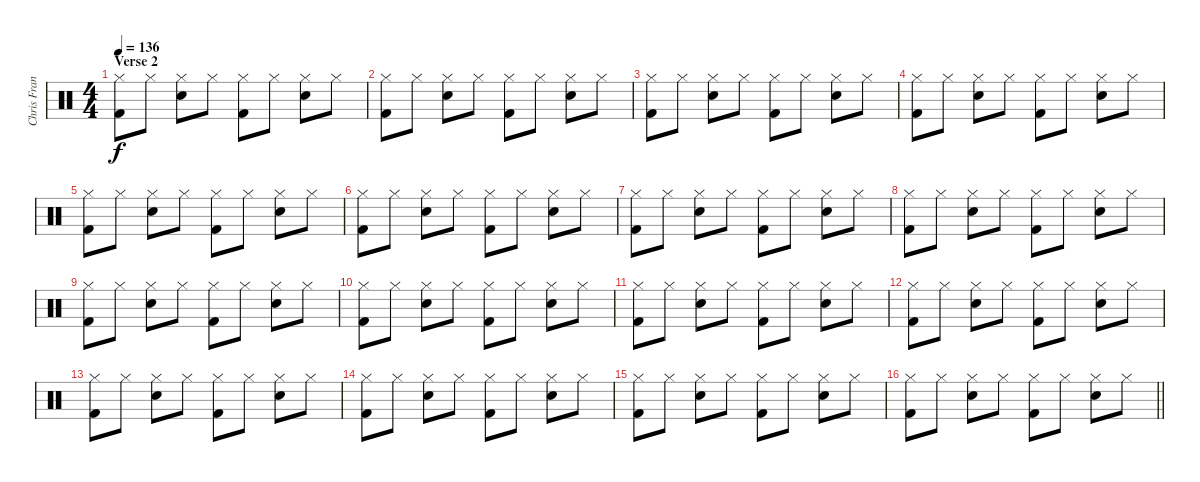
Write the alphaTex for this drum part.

\track ("Chris Frantz" "Chris Fran") {instrument percussion}
\staff {score}
\articulation defaults
\ts (4 4)
\section ("" "Verse 2")
\tempo 136
\clef neutral
\ks c
("Hi-Hat (closed)" "Kick (hit) 2").8{dy f} "Hi-Hat (closed)".8 ("Hi-Hat (closed)" "Electric Snare (hit)").8 "Hi-Hat (closed)".8 ("Hi-Hat (closed)" "Kick (hit) 2").8 "Hi-Hat (closed)".8 ("Hi-Hat (closed)" "Electric Snare (hit)").8 "Hi-Hat (closed)".8 |
("Hi-Hat (closed)" "Kick (hit) 2").8 "Hi-Hat (closed)".8 ("Hi-Hat (closed)" "Electric Snare (hit)").8 "Hi-Hat (closed)".8 ("Hi-Hat (closed)" "Kick (hit) 2").8 "Hi-Hat (closed)".8 ("Hi-Hat (closed)" "Electric Snare (hit)").8 "Hi-Hat (closed)".8 |
("Hi-Hat (closed)" "Kick (hit) 2").8 "Hi-Hat (closed)".8 ("Hi-Hat (closed)" "Electric Snare (hit)").8 "Hi-Hat (closed)".8 ("Hi-Hat (closed)" "Kick (hit) 2").8 "Hi-Hat (closed)".8 ("Hi-Hat (closed)" "Electric Snare (hit)").8 "Hi-Hat (closed)".8 |
("Hi-Hat (closed)" "Kick (hit) 2").8 "Hi-Hat (closed)".8 ("Hi-Hat (closed)" "Electric Snare (hit)").8 "Hi-Hat (closed)".8 ("Hi-Hat (closed)" "Kick (hit) 2").8 "Hi-Hat (closed)".8 ("Hi-Hat (closed)" "Electric Snare (hit)").8 "Hi-Hat (closed)".8 |
("Hi-Hat (closed)" "Kick (hit) 2").8 "Hi-Hat (closed)".8 ("Hi-Hat (closed)" "Electric Snare (hit)").8 "Hi-Hat (closed)".8 ("Hi-Hat (closed)" "Kick (hit) 2").8 "Hi-Hat (closed)".8 ("Hi-Hat (closed)" "Electric Snare (hit)").8 "Hi-Hat (closed)".8 |
("Hi-Hat (closed)" "Kick (hit) 2").8 "Hi-Hat (closed)".8 ("Hi-Hat (closed)" "Electric Snare (hit)").8 "Hi-Hat (closed)".8 ("Hi-Hat (closed)" "Kick (hit) 2").8 "Hi-Hat (closed)".8 ("Hi-Hat (closed)" "Electric Snare (hit)").8 "Hi-Hat (closed)".8 |
("Hi-Hat (closed)" "Kick (hit) 2").8 "Hi-Hat (closed)".8 ("Hi-Hat (closed)" "Electric Snare (hit)").8 "Hi-Hat (closed)".8 ("Hi-Hat (closed)" "Kick (hit) 2").8 "Hi-Hat (closed)".8 ("Hi-Hat (closed)" "Electric Snare (hit)").8 "Hi-Hat (closed)".8 |
("Hi-Hat (closed)" "Kick (hit) 2").8 "Hi-Hat (closed)".8 ("Hi-Hat (closed)" "Electric Snare (hit)").8 "Hi-Hat (closed)".8 ("Hi-Hat (closed)" "Kick (hit) 2").8 "Hi-Hat (closed)".8 ("Hi-Hat (closed)" "Electric Snare (hit)").8 "Hi-Hat (closed)".8 |
("Hi-Hat (closed)" "Kick (hit) 2").8 "Hi-Hat (closed)".8 ("Hi-Hat (closed)" "Electric Snare (hit)").8 "Hi-Hat (closed)".8 ("Hi-Hat (closed)" "Kick (hit) 2").8 "Hi-Hat (closed)".8 ("Hi-Hat (closed)" "Electric Snare (hit)").8 "Hi-Hat (closed)".8 |
("Hi-Hat (closed)" "Kick (hit) 2").8 "Hi-Hat (closed)".8 ("Hi-Hat (closed)" "Electric Snare (hit)").8 "Hi-Hat (closed)".8 ("Hi-Hat (closed)" "Kick (hit) 2").8 "Hi-Hat (closed)".8 ("Hi-Hat (closed)" "Electric Snare (hit)").8 "Hi-Hat (closed)".8 |
("Hi-Hat (closed)" "Kick (hit) 2").8 "Hi-Hat (closed)".8 ("Hi-Hat (closed)" "Electric Snare (hit)").8 "Hi-Hat (closed)".8 ("Hi-Hat (closed)" "Kick (hit) 2").8 "Hi-Hat (closed)".8 ("Hi-Hat (closed)" "Electric Snare (hit)").8 "Hi-Hat (closed)".8 |
("Hi-Hat (closed)" "Kick (hit) 2").8 "Hi-Hat (closed)".8 ("Hi-Hat (closed)" "Electric Snare (hit)").8 "Hi-Hat (closed)".8 ("Hi-Hat (closed)" "Kick (hit) 2").8 "Hi-Hat (closed)".8 ("Hi-Hat (closed)" "Electric Snare (hit)").8 "Hi-Hat (closed)".8 |
("Hi-Hat (closed)" "Kick (hit) 2").8 "Hi-Hat (closed)".8 ("Hi-Hat (closed)" "Electric Snare (hit)").8 "Hi-Hat (closed)".8 ("Hi-Hat (closed)" "Kick (hit) 2").8 "Hi-Hat (closed)".8 ("Hi-Hat (closed)" "Electric Snare (hit)").8 "Hi-Hat (closed)".8 |
("Hi-Hat (closed)" "Kick (hit) 2").8 "Hi-Hat (closed)".8 ("Hi-Hat (closed)" "Electric Snare (hit)").8 "Hi-Hat (closed)".8 ("Hi-Hat (closed)" "Kick (hit) 2").8 "Hi-Hat (closed)".8 ("Hi-Hat (closed)" "Electric Snare (hit)").8 "Hi-Hat (closed)".8 |
("Hi-Hat (closed)" "Kick (hit) 2").8 "Hi-Hat (closed)".8 ("Hi-Hat (closed)" "Electric Snare (hit)").8 "Hi-Hat (closed)".8 ("Hi-Hat (closed)" "Kick (hit) 2").8 "Hi-Hat (closed)".8 ("Hi-Hat (closed)" "Electric Snare (hit)").8 "Hi-Hat (closed)".8 |
\barLineRight lightlight
("Hi-Hat (closed)" "Kick (hit) 2").8 "Hi-Hat (closed)".8 ("Hi-Hat (closed)" "Electric Snare (hit)").8 "Hi-Hat (closed)".8 ("Hi-Hat (closed)" "Kick (hit) 2").8 "Hi-Hat (closed)".8 ("Hi-Hat (closed)" "Electric Snare (hit)").8 "Hi-Hat (closed)".8
